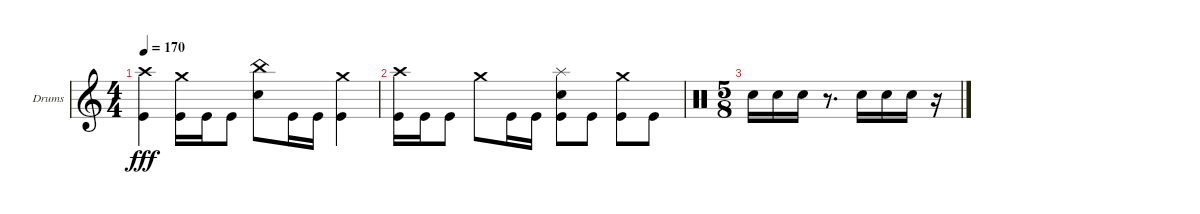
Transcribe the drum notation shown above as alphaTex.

\defaultSystemsLayout 4
\bracketExtendMode groupsimilarinstruments
\firstSystemTrackNameOrientation horizontal
\otherSystemsTrackNameOrientation horizontal
\track ("Chris Adler" "Drums") {instrument percussion}
\staff {score}
\articulation defaults
\ts (4 4)
\tempo 170
\clef g2
\ks c
("Kick (hit)" "Crash high (hit)").4{dy fff} ("Kick (hit)" "Crash medium (hit)").16 "Kick (hit)".16 "Kick (hit)".8 ("Snare (hit) 2" "China (hit)").8 "Kick (hit)".16 "Kick (hit)".16 ("Kick (hit)" "Crash medium (hit)").4 |
("Kick (hit)" "Crash high (hit)").16 "Kick (hit)".16 "Kick (hit)".8 "Crash medium (hit)".8 "Kick (hit)".16 "Kick (hit)".16 ("Kick (hit)" "Snare (hit) 2" "Splash (hit)").8 "Kick (hit)".8 ("Kick (hit)" "Crash medium (hit)").8 "Kick (hit)".8 |
\ts (5 8)
\clef neutral "Snare (hit) 2".16 "Snare (hit) 2".16 "Snare (hit) 2".16
r.8{d} "Snare (hit) 2".16 "Snare (hit) 2".16 "Snare (hit) 2".16 r.16
